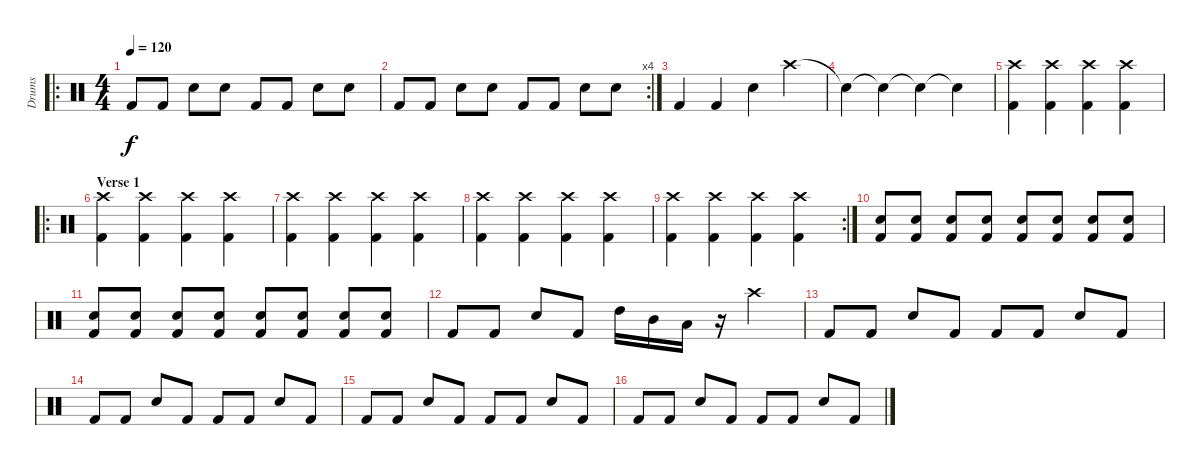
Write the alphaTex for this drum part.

\track ("Drums" "Drums") {instrument percussion}
\staff {score}
\articulation defaults
\ro
\ts (4 4)
\tempo 120
\clef neutral
\ks c "Kick (hit) 2".8{dy f} "Kick (hit) 2".8 "Snare (hit) 2".8 "Snare (hit) 2".8 "Kick (hit) 2".8 "Kick (hit) 2".8 "Snare (hit) 2".8 "Snare (hit) 2".8
|
\rc 4 "Kick (hit) 2".8 "Kick (hit) 2".8 "Snare (hit) 2".8 "Snare (hit) 2".8 "Kick (hit) 2".8 "Kick (hit) 2".8 "Snare (hit) 2".8 "Snare (hit) 2".8
|
"Kick (hit) 2".4 "Kick (hit) 2".4 "Snare (hit) 2".4 "Crash high (hit)".4 |
"Snare (hit)"{t}.4 "Snare (hit)"{t}.4 "Snare (hit)"{t}.4 "Snare (hit)"{t}.4 |
("Kick (hit) 2" "Crash high (hit)").4 ("Kick (hit) 2" "Crash high (hit)").4 ("Kick (hit) 2" "Crash high (hit)").4 ("Kick (hit) 2" "Crash high (hit)").4 |
\ro
\section ("" "Verse 1")
("Kick (hit) 2" "Crash high (hit)").4 ("Kick (hit) 2" "Crash high (hit)").4 ("Kick (hit) 2" "Crash high (hit)").4 ("Kick (hit) 2" "Crash high (hit)").4 |
("Kick (hit) 2" "Crash high (hit)").4 ("Kick (hit) 2" "Crash high (hit)").4 ("Kick (hit) 2" "Crash high (hit)").4 ("Kick (hit) 2" "Crash high (hit)").4 |
("Kick (hit) 2" "Crash high (hit)").4 ("Kick (hit) 2" "Crash high (hit)").4 ("Kick (hit) 2" "Crash high (hit)").4 ("Kick (hit) 2" "Crash high (hit)").4 |
\rc 2
("Kick (hit) 2" "Crash high (hit)").4 ("Kick (hit) 2" "Crash high (hit)").4 ("Kick (hit) 2" "Crash high (hit)").4 ("Kick (hit) 2" "Crash high (hit)").4 |
("Kick (hit) 2" "Snare (hit) 2").8 ("Kick (hit) 2" "Snare (hit) 2").8 ("Kick (hit) 2" "Snare (hit) 2").8 ("Kick (hit) 2" "Snare (hit) 2").8 ("Kick (hit) 2" "Snare (hit) 2").8 ("Kick (hit) 2" "Snare (hit) 2").8 ("Kick (hit) 2" "Snare (hit) 2").8 ("Kick (hit) 2" "Snare (hit) 2").8 |
("Kick (hit) 2" "Snare (hit) 2").8 ("Kick (hit) 2" "Snare (hit) 2").8 ("Kick (hit) 2" "Snare (hit) 2").8 ("Kick (hit) 2" "Snare (hit) 2").8 ("Kick (hit) 2" "Snare (hit) 2").8 ("Kick (hit) 2" "Snare (hit) 2").8 ("Kick (hit) 2" "Snare (hit) 2").8 ("Kick (hit) 2" "Snare (hit) 2").8 |
"Kick (hit) 2".8 "Kick (hit) 2".8 "Snare (hit) 2".8 "Kick (hit) 2".8 "High Tom (hit)".16 "Mid Tom (hit)".16 "Low Tom (hit)".16 r.16 "Crash high (hit)".4 |
"Kick (hit) 2".8 "Kick (hit) 2".8 "Snare (hit) 2".8 "Kick (hit) 2".8 "Kick (hit) 2".8 "Kick (hit) 2".8 "Snare (hit) 2".8 "Kick (hit) 2".8 |
"Kick (hit) 2".8 "Kick (hit) 2".8 "Snare (hit) 2".8 "Kick (hit) 2".8 "Kick (hit) 2".8 "Kick (hit) 2".8 "Snare (hit) 2".8 "Kick (hit) 2".8 |
"Kick (hit) 2".8 "Kick (hit) 2".8 "Snare (hit) 2".8 "Kick (hit) 2".8 "Kick (hit) 2".8 "Kick (hit) 2".8 "Snare (hit) 2".8 "Kick (hit) 2".8 |
"Kick (hit) 2".8 "Kick (hit) 2".8 "Snare (hit) 2".8 "Kick (hit) 2".8 "Kick (hit) 2".8 "Kick (hit) 2".8 "Snare (hit) 2".8 "Kick (hit) 2".8
